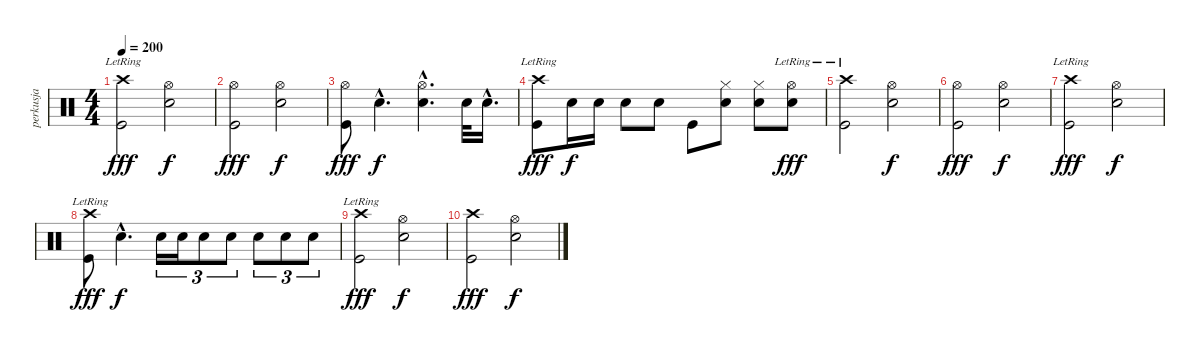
\track ("perkusja" "perkusja") {instrument percussion}
\staff {score}
\articulation defaults
\ts (4 4)
\tempo 200
\clef neutral
\ks c
("Crash high (hit)"{lr} "Kick (hit)").2{dy fff} ("Hi-Hat (open)" "Electric Snare (hit)").2{dy f} |
("Hi-Hat (open)" "Kick (hit)").2{dy fff} ("Hi-Hat (open)" "Electric Snare (hit)").2{dy f} |
("Hi-Hat (open)" "Kick (hit)").8{dy fff} "Electric Snare (hit)"{hac}.4{d dy f} ("Hi-Hat (open)"{hac} "Electric Snare (hit)"{hac}).4{d} "Electric Snare (hit)".32 "Electric Snare (hit)"{hac}.16{d} |
("Crash high (hit)"{lr} "Kick (hit)").8{dy fff} "Electric Snare (hit)".16{dy f} "Electric Snare (hit)".16 "Electric Snare (hit)".8 "Electric Snare (hit)".8 "Kick (hit)".8 ("Hi-Hat (closed)" "Electric Snare (hit)").8 ("Hi-Hat (closed)" "Electric Snare (hit)").8 ("Hi-Hat (open)"{lr} "Electric Snare (hit)").8{dy fff} |
("Crash high (hit)"{lr} "Kick (hit)").2 ("Hi-Hat (open)" "Electric Snare (hit)").2{dy f} |
("Hi-Hat (open)" "Kick (hit)").2{dy fff} ("Hi-Hat (open)" "Electric Snare (hit)").2{dy f} |
("Crash high (hit)"{lr} "Kick (hit)").2{dy fff} ("Hi-Hat (open)" "Electric Snare (hit)").2{dy f} |
("Crash high (hit)"{lr} "Kick (hit)").8{dy fff} "Electric Snare (hit)"{hac}.4{d dy f} "Electric Snare (hit)".16{tu (3 2)} "Electric Snare (hit)".16{tu (3 2)} "Electric Snare (hit)".8{tu (3 2)} "Electric Snare (hit)".8{tu (3 2)} "Electric Snare (hit)".8{tu (3 2)} "Electric Snare (hit)".8{tu (3 2)} "Electric Snare (hit)".8{tu (3 2)} |
("Crash high (hit)"{lr} "Kick (hit)").2{dy fff} ("Hi-Hat (open)" "Electric Snare (hit)").2{dy f} |
("Crash high (hit)" "Kick (hit)").2{dy fff} ("Hi-Hat (open)" "Electric Snare (hit)").2{dy f}
